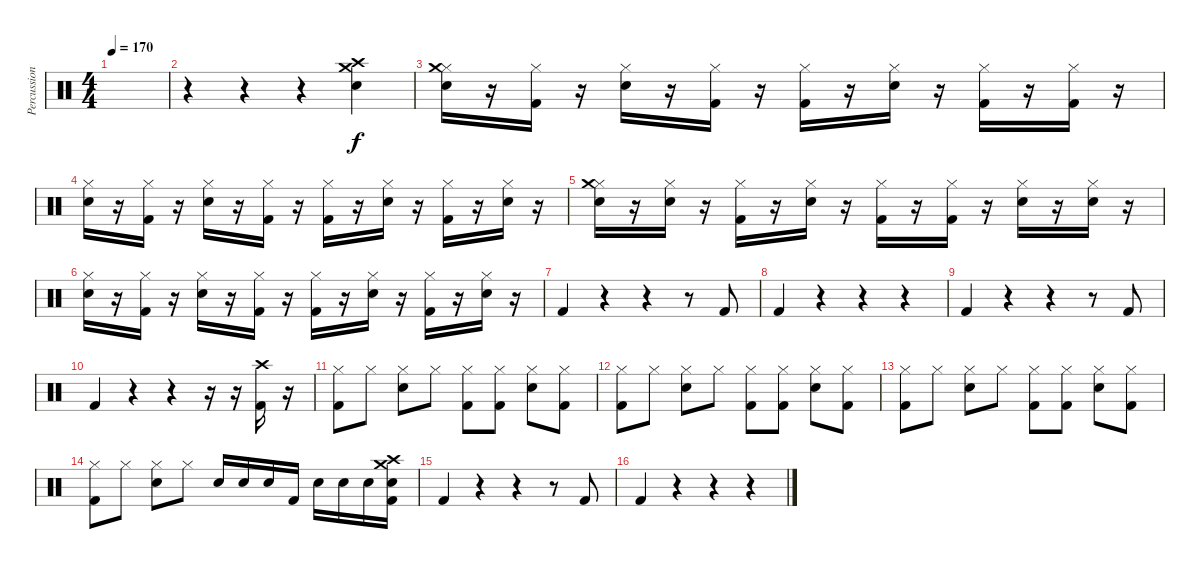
\track ("Percussion" "Percussion") {instrument percussion}
\staff {score}
\articulation defaults
\ts (4 4)
\tempo 170
\clef neutral
\ks c
|
r.4 r.4 r.4 ("Crash high (hit)" "Crash medium (hit)" "Snare (hit) 2").4 |
("Snare (hit) 2" "Hi-Hat (closed)" "Crash medium (hit)").16 r.16 ("Kick (hit) 2" "Hi-Hat (closed)").16 r.16 ("Snare (hit) 2" "Hi-Hat (closed)").16 r.16 ("Kick (hit) 2" "Hi-Hat (closed)").16 r.16 ("Kick (hit) 2" "Hi-Hat (closed)").16 r.16 ("Snare (hit) 2" "Hi-Hat (closed)").16 r.16 ("Kick (hit) 2" "Hi-Hat (closed)").16 r.16 ("Kick (hit) 2" "Hi-Hat (closed)").16 r.16 |
("Snare (hit) 2" "Hi-Hat (closed)").16 r.16 ("Kick (hit) 2" "Hi-Hat (closed)").16 r.16 ("Snare (hit) 2" "Hi-Hat (closed)").16 r.16 ("Kick (hit) 2" "Hi-Hat (closed)").16 r.16 ("Kick (hit) 2" "Hi-Hat (closed)").16 r.16 ("Snare (hit) 2" "Hi-Hat (closed)").16 r.16 ("Kick (hit) 2" "Hi-Hat (closed)").16 r.16 ("Snare (hit) 2" "Hi-Hat (closed)").16 r.16 |
("Hi-Hat (closed)" "Snare (hit) 2" "Crash medium (hit)").16 r.16 ("Snare (hit) 2" "Hi-Hat (closed)").16 r.16 ("Kick (hit) 2" "Hi-Hat (closed)").16 r.16 ("Snare (hit) 2" "Hi-Hat (closed)").16 r.16 ("Kick (hit) 2" "Hi-Hat (closed)").16 r.16 ("Kick (hit) 2" "Hi-Hat (closed)").16 r.16 ("Snare (hit) 2" "Hi-Hat (closed)").16 r.16 ("Snare (hit) 2" "Hi-Hat (closed)").16 r.16 |
("Snare (hit) 2" "Hi-Hat (closed)").16 r.16 ("Kick (hit) 2" "Hi-Hat (closed)").16 r.16 ("Snare (hit) 2" "Hi-Hat (closed)").16 r.16 ("Kick (hit) 2" "Hi-Hat (closed)").16 r.16 ("Kick (hit) 2" "Hi-Hat (closed)").16 r.16 ("Snare (hit) 2" "Hi-Hat (closed)").16 r.16 ("Kick (hit) 2" "Hi-Hat (closed)").16 r.16 ("Snare (hit) 2" "Hi-Hat (closed)").16 r.16 |
"Kick (hit) 2".4 r.4 r.4 r.8 "Kick (hit) 2".8 |
"Kick (hit) 2".4 r.4 r.4 r.4 |
"Kick (hit) 2".4 r.4 r.4 r.8 "Kick (hit) 2".8 |
"Kick (hit) 2".4 r.4 r.4 r.16 r.16 ("Crash high (hit)" "Kick (hit) 2").16 r.16 |
("Kick (hit) 2" "Hi-Hat (closed)").8 "Hi-Hat (closed)".8 ("Snare (hit) 2" "Hi-Hat (closed)").8 "Hi-Hat (closed)".8 ("Kick (hit) 2" "Hi-Hat (closed)").8 ("Kick (hit) 2" "Hi-Hat (closed)").8 ("Snare (hit) 2" "Hi-Hat (closed)").8 ("Kick (hit) 2" "Hi-Hat (closed)").8 |
("Hi-Hat (closed)" "Kick (hit) 2").8 "Hi-Hat (closed)".8 ("Hi-Hat (closed)" "Snare (hit) 2").8 "Hi-Hat (closed)".8 ("Hi-Hat (closed)" "Kick (hit) 2").8 ("Hi-Hat (closed)" "Kick (hit) 2").8 ("Hi-Hat (closed)" "Snare (hit) 2").8 ("Hi-Hat (closed)" "Kick (hit) 2").8 |
("Kick (hit) 2" "Hi-Hat (closed)").8 "Hi-Hat (closed)".8 ("Snare (hit) 2" "Hi-Hat (closed)").8 "Hi-Hat (closed)".8 ("Kick (hit) 2" "Hi-Hat (closed)").8 ("Kick (hit) 2" "Hi-Hat (closed)").8 ("Snare (hit) 2" "Hi-Hat (closed)").8 ("Kick (hit) 2" "Hi-Hat (closed)").8 |
("Hi-Hat (closed)" "Kick (hit) 2").8 "Hi-Hat (closed)".8 ("Hi-Hat (closed)" "Snare (hit) 2").8 "Hi-Hat (closed)".8 "Snare (hit) 2".16 "Snare (hit) 2".16 "Snare (hit) 2".16 "Kick (hit) 2".16 "Snare (hit) 2".16 "Snare (hit) 2".16 "Snare (hit) 2".16 ("Crash high (hit)" "Kick (hit) 2" "Crash medium (hit)" "Snare (hit) 2").16 |
"Kick (hit) 2".4 r.4 r.4 r.8 "Kick (hit) 2".8 |
"Kick (hit) 2".4 r.4 r.4 r.4
